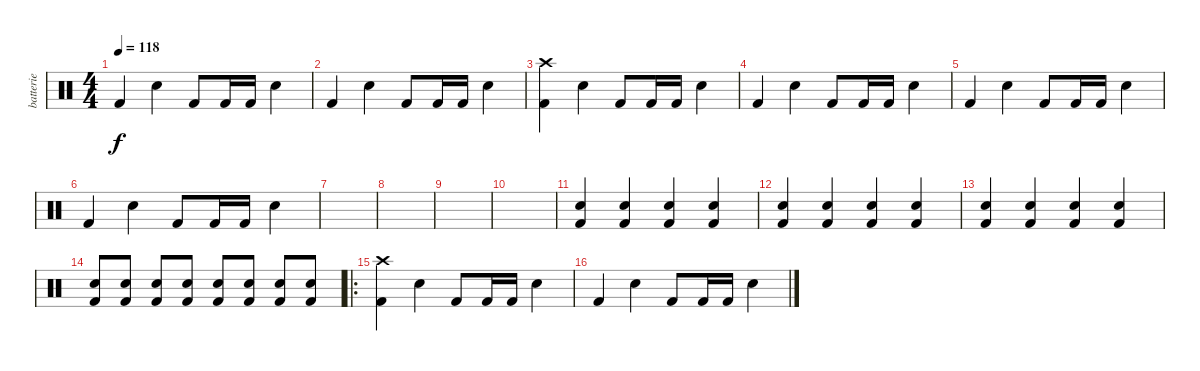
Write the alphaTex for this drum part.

\track ("batterie" "batterie") {instrument percussion}
\staff {score}
\articulation defaults
\ts (4 4)
\tempo 118
\clef neutral
\ks c "Kick (hit) 2".4{dy f} "Electric Snare (hit)".4 "Kick (hit) 2".8 "Kick (hit) 2".16 "Kick (hit) 2".16 "Electric Snare (hit)".4
|
"Kick (hit) 2".4 "Electric Snare (hit)".4 "Kick (hit) 2".8 "Kick (hit) 2".16 "Kick (hit) 2".16 "Electric Snare (hit)".4 |
("Crash high (hit)" "Kick (hit) 2").4 "Electric Snare (hit)".4 "Kick (hit) 2".8 "Kick (hit) 2".16 "Kick (hit) 2".16 "Electric Snare (hit)".4 |
"Kick (hit) 2".4 "Electric Snare (hit)".4 "Kick (hit) 2".8 "Kick (hit) 2".16 "Kick (hit) 2".16 "Electric Snare (hit)".4 |
"Kick (hit) 2".4 "Electric Snare (hit)".4 "Kick (hit) 2".8 "Kick (hit) 2".16 "Kick (hit) 2".16 "Electric Snare (hit)".4 |
"Kick (hit) 2".4 "Electric Snare (hit)".4 "Kick (hit) 2".8 "Kick (hit) 2".16 "Kick (hit) 2".16 "Electric Snare (hit)".4 |
|
|
|
|
("Electric Snare (hit)" "Kick (hit) 2").4 ("Electric Snare (hit)" "Kick (hit) 2").4 ("Electric Snare (hit)" "Kick (hit) 2").4 ("Electric Snare (hit)" "Kick (hit) 2").4 |
("Electric Snare (hit)" "Kick (hit) 2").4 ("Electric Snare (hit)" "Kick (hit) 2").4 ("Electric Snare (hit)" "Kick (hit) 2").4 ("Electric Snare (hit)" "Kick (hit) 2").4 |
("Electric Snare (hit)" "Kick (hit) 2").4 ("Electric Snare (hit)" "Kick (hit) 2").4 ("Electric Snare (hit)" "Kick (hit) 2").4 ("Electric Snare (hit)" "Kick (hit) 2").4 |
("Electric Snare (hit)" "Kick (hit) 2").8 ("Electric Snare (hit)" "Kick (hit) 2").8 ("Electric Snare (hit)" "Kick (hit) 2").8 ("Electric Snare (hit)" "Kick (hit) 2").8 ("Electric Snare (hit)" "Kick (hit) 2").8 ("Electric Snare (hit)" "Kick (hit) 2").8 ("Electric Snare (hit)" "Kick (hit) 2").8 ("Electric Snare (hit)" "Kick (hit) 2").8 |
\ro
("Crash high (hit)" "Kick (hit) 2").4 "Electric Snare (hit)".4 "Kick (hit) 2".8 "Kick (hit) 2".16 "Kick (hit) 2".16 "Electric Snare (hit)".4 |
"Kick (hit) 2".4 "Electric Snare (hit)".4 "Kick (hit) 2".8 "Kick (hit) 2".16 "Kick (hit) 2".16 "Electric Snare (hit)".4
